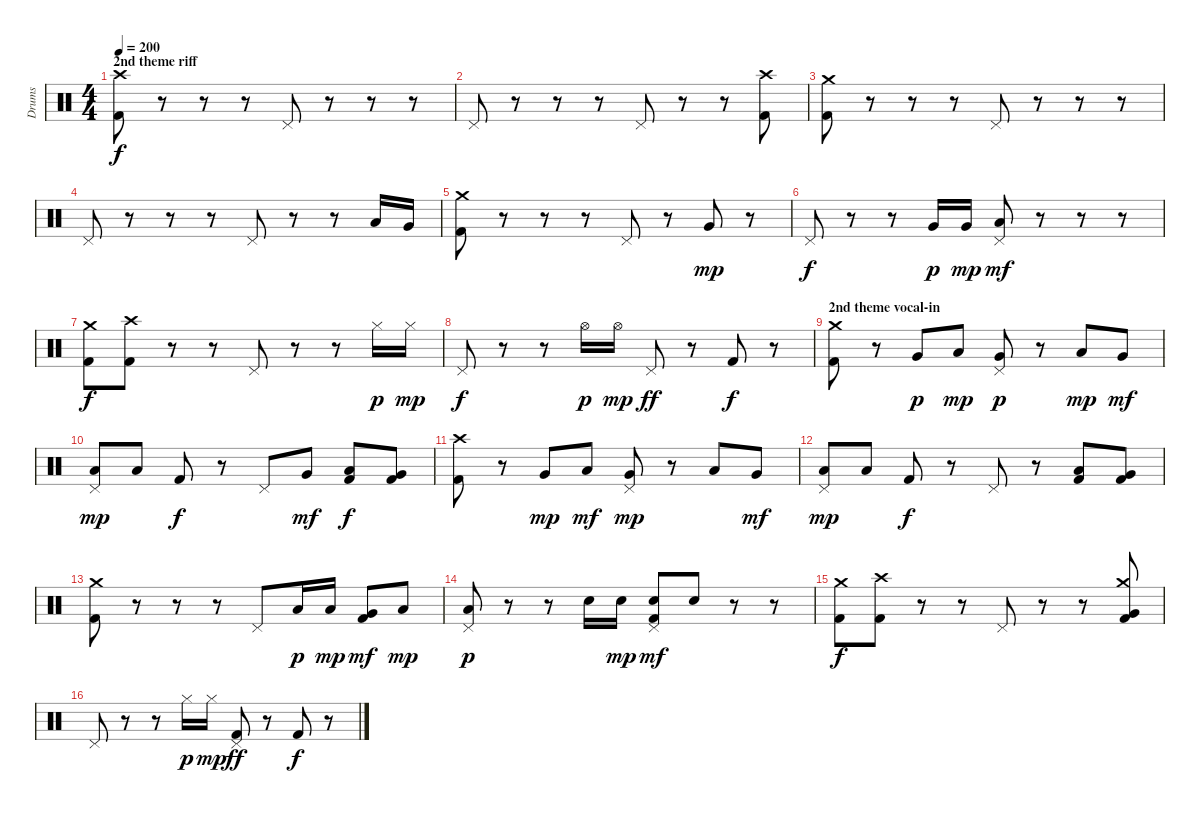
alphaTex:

\track ("Drums" "Drums") {instrument percussion}
\staff {score}
\articulation defaults
\ts (4 4)
\section ("" "2nd theme riff")
\tempo 200
\clef neutral
\ks c
("Kick (hit) 2" "Crash high (hit)").8{dy f} r.8 r.8 r.8 "Pedal Hi-Hat (hit)".8 r.8 r.8 r.8 |
"Pedal Hi-Hat (hit)".8 r.8 r.8 r.8 "Pedal Hi-Hat (hit)".8 r.8 r.8 ("Kick (hit) 2" "Crash high (hit)").8 |
("Kick (hit) 2" "Crash medium (hit)").8 r.8 r.8 r.8 "Pedal Hi-Hat (hit)".8 r.8 r.8 r.8 |
"Pedal Hi-Hat (hit)".8 r.8 r.8 r.8 "Pedal Hi-Hat (hit)".8 r.8 r.8 "Low Tom (hit)".16 "Very Low Tom (hit)".16 |
("Kick (hit) 2" "Crash medium (hit)").8 r.8 r.8 r.8 "Pedal Hi-Hat (hit)".8 r.8 "Very Low Tom (hit)".8{dy mp} r.8 |
"Pedal Hi-Hat (hit)".8{dy f} r.8 r.8 "Very Low Tom (hit)".16{dy p} "Very Low Tom (hit)".16{dy mp} ("Low Floor Tom (hit)" "Pedal Hi-Hat (hit)").8{dy mf} r.8 r.8 r.8 |
("Kick (hit) 2" "Crash medium (hit)").8{dy f} ("Kick (hit) 2" "Crash high (hit)").8 r.8 r.8 "Pedal Hi-Hat (hit)".8 r.8 r.8 "Hi-Hat (closed)".16{dy p} "Hi-Hat (closed)".16{dy mp} |
"Pedal Hi-Hat (hit)".8{dy f} r.8 r.8 "Hi-Hat (open)".16{dy p} "Hi-Hat (open)".16{dy mp} "Pedal Hi-Hat (hit)".8{dy ff} r.8 "Kick (hit) 2".8{dy f} r.8 |
\section ("" "2nd theme vocal-in")
("Kick (hit) 2" "Crash medium (hit)").8 r.8 "Very Low Tom (hit)".8{dy p} "Low Tom (hit)".8{dy mp} ("Very Low Tom (hit)" "Pedal Hi-Hat (hit)").8{dy p} r.8 "Low Tom (hit)".8{dy mp} "Very Low Tom (hit)".8{dy mf} |
("Low Tom (hit)" "Pedal Hi-Hat (hit)").8{dy mp} "Low Floor Tom (hit)".8 "Kick (hit) 2".8{dy f} r.8 "Pedal Hi-Hat (hit)".8 "Very Low Tom (hit)".8{dy mf} ("Kick (hit) 2" "Low Tom (hit)").8{dy f} ("Kick (hit) 2" "Very Low Tom (hit)").8 |
("Kick (hit) 2" "Crash high (hit)").8 r.8 "Very Low Tom (hit)".8{dy mp} "Low Tom (hit)".8{dy mf} ("Very Low Tom (hit)" "Pedal Hi-Hat (hit)").8{dy mp} r.8 "Low Tom (hit)".8 "Very Low Tom (hit)".8{dy mf} |
("Low Tom (hit)" "Pedal Hi-Hat (hit)").8{dy mp} "Low Floor Tom (hit)".8 "Kick (hit) 2".8{dy f} r.8 "Pedal Hi-Hat (hit)".8 r.8 ("Kick (hit) 2" "Low Tom (hit)").8 ("Kick (hit) 2" "Very Low Tom (hit)").8 |
("Kick (hit) 2" "Crash medium (hit)").8 r.8 r.8 r.8 "Pedal Hi-Hat (hit)".8 "Low Tom (hit)".16{dy p} "Low Tom (hit)".16{dy mp} ("Kick (hit) 2" "Very Low Tom (hit)").8{dy mf} "Low Floor Tom (hit)".8{dy mp} |
("Pedal Hi-Hat (hit)" "Low Floor Tom (hit)").8{dy p} r.8 r.8 "Electric Snare (hit)".16 "Electric Snare (hit)".16{dy mp} ("Kick (hit) 2" "Pedal Hi-Hat (hit)" "Electric Snare (hit)").8{dy mf} "Electric Snare (hit)".8 r.8 r.8 |
("Kick (hit) 2" "Crash medium (hit)").8{dy f} ("Kick (hit) 2" "Crash high (hit)").8 r.8 r.8 "Pedal Hi-Hat (hit)".8 r.8 r.8 ("Kick (hit) 2" "Very Low Tom (hit)" "Crash medium (hit)").8 |
"Pedal Hi-Hat (hit)".8 r.8 r.8 "Hi-Hat (closed)".16{dy p} "Hi-Hat (closed)".16{dy mp} ("Kick (hit) 2" "Pedal Hi-Hat (hit)").8{dy ff} r.8 "Kick (hit) 2".8{dy f} r.8
